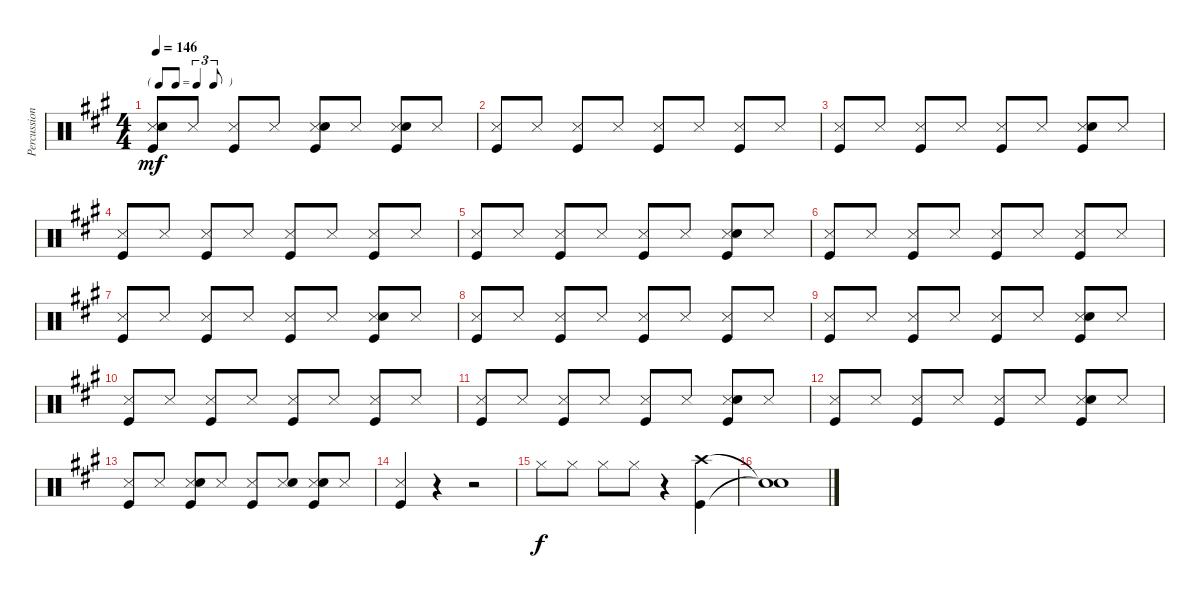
\track ("Percussion" "Percussion") {instrument percussion}
\staff {score}
\articulation defaults
\ts (4 4)
\tf triplet8th
\tempo 146
\clef neutral
\ks a
("Snare (side stick) 3" "Snare (hit) 2" "Kick (hit)").8{dy mf} "Snare (side stick) 3".8 ("Snare (side stick) 3" "Kick (hit)").8 "Snare (side stick) 3".8 ("Snare (side stick) 3" "Snare (hit) 2" "Kick (hit)").8 "Snare (side stick) 3".8 ("Snare (side stick) 3" "Snare (hit) 2" "Kick (hit)").8 "Snare (side stick) 3".8 |
("Snare (side stick) 3" "Kick (hit)").8 "Snare (side stick) 3".8 ("Snare (side stick) 3" "Kick (hit)").8 "Snare (side stick) 3".8 ("Snare (side stick) 3" "Kick (hit)").8 "Snare (side stick) 3".8 ("Snare (side stick) 3" "Kick (hit)").8 "Snare (side stick) 3".8 |
("Snare (side stick) 3" "Kick (hit)").8 "Snare (side stick) 3".8 ("Snare (side stick) 3" "Kick (hit)").8 "Snare (side stick) 3".8 ("Snare (side stick) 3" "Kick (hit)").8 "Snare (side stick) 3".8 ("Snare (side stick) 3" "Snare (hit) 2" "Kick (hit)").8 "Snare (side stick) 3".8 |
("Snare (side stick) 3" "Kick (hit)").8 "Snare (side stick) 3".8 ("Snare (side stick) 3" "Kick (hit)").8 "Snare (side stick) 3".8 ("Snare (side stick) 3" "Kick (hit)").8 "Snare (side stick) 3".8 ("Snare (side stick) 3" "Kick (hit)").8 "Snare (side stick) 3".8 |
("Snare (side stick) 3" "Kick (hit)").8 "Snare (side stick) 3".8 ("Snare (side stick) 3" "Kick (hit)").8 "Snare (side stick) 3".8 ("Snare (side stick) 3" "Kick (hit)").8 "Snare (side stick) 3".8 ("Snare (side stick) 3" "Snare (hit) 2" "Kick (hit)").8 "Snare (side stick) 3".8 |
("Snare (side stick) 3" "Kick (hit)").8 "Snare (side stick) 3".8 ("Snare (side stick) 3" "Kick (hit)").8 "Snare (side stick) 3".8 ("Snare (side stick) 3" "Kick (hit)").8 "Snare (side stick) 3".8 ("Snare (side stick) 3" "Kick (hit)").8 "Snare (side stick) 3".8 |
("Snare (side stick) 3" "Kick (hit)").8 "Snare (side stick) 3".8 ("Snare (side stick) 3" "Kick (hit)").8 "Snare (side stick) 3".8 ("Snare (side stick) 3" "Kick (hit)").8 "Snare (side stick) 3".8 ("Snare (side stick) 3" "Snare (hit) 2" "Kick (hit)").8 "Snare (side stick) 3".8 |
("Snare (side stick) 3" "Kick (hit)").8 "Snare (side stick) 3".8 ("Snare (side stick) 3" "Kick (hit)").8 "Snare (side stick) 3".8 ("Snare (side stick) 3" "Kick (hit)").8 "Snare (side stick) 3".8 ("Snare (side stick) 3" "Kick (hit)").8 "Snare (side stick) 3".8 |
("Snare (side stick) 3" "Kick (hit)").8 "Snare (side stick) 3".8 ("Snare (side stick) 3" "Kick (hit)").8 "Snare (side stick) 3".8 ("Snare (side stick) 3" "Kick (hit)").8 "Snare (side stick) 3".8 ("Snare (side stick) 3" "Snare (hit) 2" "Kick (hit)").8 "Snare (side stick) 3".8 |
("Snare (side stick) 3" "Kick (hit)").8 "Snare (side stick) 3".8 ("Snare (side stick) 3" "Kick (hit)").8 "Snare (side stick) 3".8 ("Snare (side stick) 3" "Kick (hit)").8 "Snare (side stick) 3".8 ("Snare (side stick) 3" "Kick (hit)").8 "Snare (side stick) 3".8 |
("Snare (side stick) 3" "Kick (hit)").8 "Snare (side stick) 3".8 ("Snare (side stick) 3" "Kick (hit)").8 "Snare (side stick) 3".8 ("Snare (side stick) 3" "Kick (hit)").8 "Snare (side stick) 3".8 ("Snare (side stick) 3" "Snare (hit) 2" "Kick (hit)").8 "Snare (side stick) 3".8 |
("Snare (side stick) 3" "Kick (hit)").8 "Snare (side stick) 3".8 ("Snare (side stick) 3" "Kick (hit)").8 "Snare (side stick) 3".8 ("Snare (side stick) 3" "Kick (hit)").8 "Snare (side stick) 3".8 ("Snare (side stick) 3" "Snare (hit) 2" "Kick (hit)").8 "Snare (side stick) 3".8 |
("Snare (side stick) 3" "Kick (hit)").8 "Snare (side stick) 3".8 ("Snare (side stick) 3" "Snare (hit) 2" "Kick (hit)").8 "Snare (side stick) 3".8 ("Snare (side stick) 3" "Kick (hit)").8 ("Snare (side stick) 3" "Snare (hit) 2").8 ("Snare (side stick) 3" "Snare (hit) 2" "Kick (hit)").8 "Snare (side stick) 3".8 |
("Snare (side stick) 3" "Kick (hit)").4 r.4 r.2 |
"Hi-Hat (closed)".8{dy f} "Hi-Hat (closed)".8 "Hi-Hat (closed)".8 "Hi-Hat (closed)".8 r.4 ("Crash high (hit)" "Kick (hit)").4 |
("Snare (hit)"{t} "Snare (hit)"{t}).1
